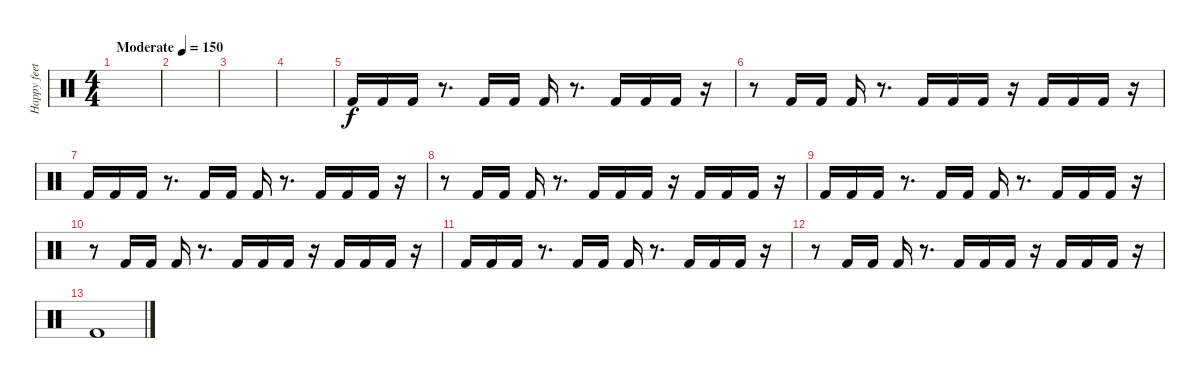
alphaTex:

\track ("Happy feet" "Happy feet") {instrument percussion}
\staff {score}
\articulation defaults
\ts (4 4)
\tempo (150 "Moderate")
\clef neutral
\ks c
|
|
|
|
"Kick (hit) 2".16 "Kick (hit) 2".16 "Kick (hit) 2".16 r.8{d} "Kick (hit) 2".16 "Kick (hit) 2".16 "Kick (hit) 2".16 r.8{d} "Kick (hit) 2".16 "Kick (hit) 2".16 "Kick (hit) 2".16 r.16 |
r.8 "Kick (hit) 2".16 "Kick (hit) 2".16 "Kick (hit) 2".16 r.8{d} "Kick (hit) 2".16 "Kick (hit) 2".16 "Kick (hit) 2".16 r.16 "Kick (hit) 2".16 "Kick (hit) 2".16 "Kick (hit) 2".16 r.16 |
"Kick (hit) 2".16 "Kick (hit) 2".16 "Kick (hit) 2".16 r.8{d} "Kick (hit) 2".16 "Kick (hit) 2".16 "Kick (hit) 2".16 r.8{d} "Kick (hit) 2".16 "Kick (hit) 2".16 "Kick (hit) 2".16 r.16 |
r.8 "Kick (hit) 2".16 "Kick (hit) 2".16 "Kick (hit) 2".16 r.8{d} "Kick (hit) 2".16 "Kick (hit) 2".16 "Kick (hit) 2".16 r.16 "Kick (hit) 2".16 "Kick (hit) 2".16 "Kick (hit) 2".16 r.16 |
"Kick (hit) 2".16 "Kick (hit) 2".16 "Kick (hit) 2".16 r.8{d} "Kick (hit) 2".16 "Kick (hit) 2".16 "Kick (hit) 2".16 r.8{d} "Kick (hit) 2".16 "Kick (hit) 2".16 "Kick (hit) 2".16 r.16 |
r.8 "Kick (hit) 2".16 "Kick (hit) 2".16 "Kick (hit) 2".16 r.8{d} "Kick (hit) 2".16 "Kick (hit) 2".16 "Kick (hit) 2".16 r.16 "Kick (hit) 2".16 "Kick (hit) 2".16 "Kick (hit) 2".16 r.16 |
"Kick (hit) 2".16 "Kick (hit) 2".16 "Kick (hit) 2".16 r.8{d} "Kick (hit) 2".16 "Kick (hit) 2".16 "Kick (hit) 2".16 r.8{d} "Kick (hit) 2".16 "Kick (hit) 2".16 "Kick (hit) 2".16 r.16 |
r.8 "Kick (hit) 2".16 "Kick (hit) 2".16 "Kick (hit) 2".16 r.8{d} "Kick (hit) 2".16 "Kick (hit) 2".16 "Kick (hit) 2".16 r.16 "Kick (hit) 2".16 "Kick (hit) 2".16 "Kick (hit) 2".16 r.16 |
"Kick (hit) 2".1
